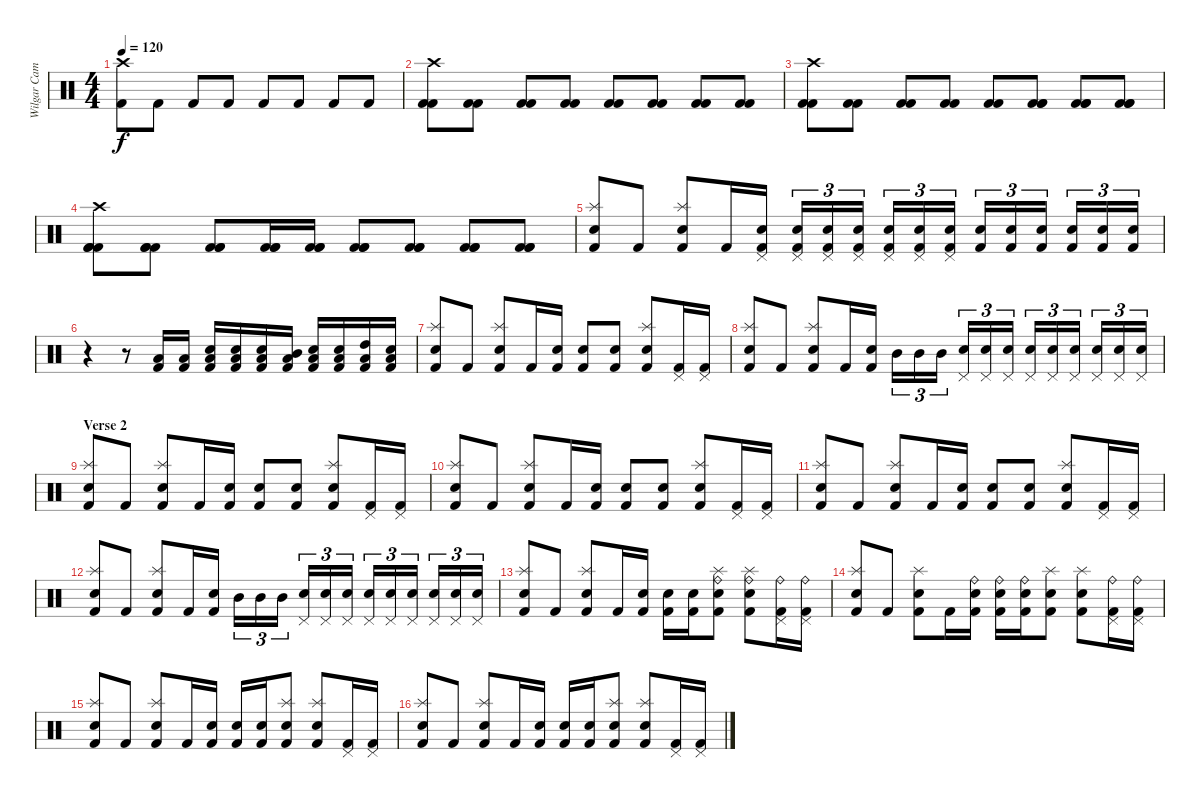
\track ("Wilgar Campbell" "Wilgar Cam") {instrument percussion}
\staff {score}
\articulation defaults
\ts (4 4)
\tempo 120
\clef neutral
\ks c
("Crash high (hit)" "Kick (hit) 2").8{dy f} "Kick (hit) 2".8 "Kick (hit) 2".8 "Kick (hit) 2".8 "Kick (hit) 2".8 "Kick (hit) 2".8 "Kick (hit) 2".8 "Kick (hit) 2".8 |
("Crash high (hit)" "Kick (hit) 2" "Kick (hit) 2").8 ("Kick (hit) 2" "Kick (hit) 2").8 ("Kick (hit) 2" "Kick (hit) 2").8 ("Kick (hit) 2" "Kick (hit) 2").8 ("Kick (hit) 2" "Kick (hit) 2").8 ("Kick (hit) 2" "Kick (hit) 2").8 ("Kick (hit) 2" "Kick (hit) 2").8 ("Kick (hit) 2" "Kick (hit) 2").8 |
("Crash high (hit)" "Kick (hit) 2" "Kick (hit) 2").8 ("Kick (hit) 2" "Kick (hit) 2").8 ("Kick (hit) 2" "Kick (hit) 2").8 ("Kick (hit) 2" "Kick (hit) 2").8 ("Kick (hit) 2" "Kick (hit) 2").8 ("Kick (hit) 2" "Kick (hit) 2" "Kick (hit) 2").8 ("Kick (hit) 2" "Kick (hit) 2" "Kick (hit) 2").8 ("Kick (hit) 2" "Kick (hit) 2" "Kick (hit) 2").8 |
("Crash high (hit)" "Kick (hit) 2" "Kick (hit) 2" "Kick (hit) 2").8 ("Kick (hit) 2" "Kick (hit) 2" "Kick (hit) 2").8 ("Kick (hit) 2" "Kick (hit) 2" "Kick (hit) 2").8 ("Kick (hit) 2" "Kick (hit) 2" "Kick (hit) 2").16 ("Kick (hit) 2" "Kick (hit) 2" "Kick (hit) 2").16 ("Kick (hit) 2" "Kick (hit) 2" "Kick (hit) 2").8 ("Kick (hit) 2" "Kick (hit) 2" "Kick (hit) 2").8 ("Kick (hit) 2" "Kick (hit) 2" "Kick (hit) 2").8 ("Kick (hit) 2" "Kick (hit) 2" "Kick (hit) 2").8 |
("Splash (hit)" "Snare (hit) 2" "Kick (hit) 2").8 "Kick (hit) 2".8 ("Splash (hit)" "Electric Snare (hit)" "Kick (hit) 2").8 "Kick (hit) 2".16 ("Pedal Hi-Hat (hit)" "Snare (hit) 2" "Kick (hit) 2").16 ("Pedal Hi-Hat (hit)" "Snare (hit) 2" "Kick (hit) 2").16{tu (3 2)} ("Pedal Hi-Hat (hit)" "Snare (hit) 2" "Kick (hit) 2").16{tu (3 2)} ("Pedal Hi-Hat (hit)" "Snare (hit) 2" "Kick (hit) 2").16{tu (3 2)} ("Pedal Hi-Hat (hit)" "Snare (hit) 2" "Kick (hit) 2").16{tu (3 2)} ("Pedal Hi-Hat (hit)" "Snare (hit) 2" "Kick (hit) 2").16{tu (3 2)} ("Pedal Hi-Hat (hit)" "Snare (hit) 2" "Kick (hit) 2").16{tu (3 2)} ("Electric Snare (hit)" "Kick (hit) 2").16{tu (3 2)} ("Electric Snare (hit)" "Kick (hit) 2").16{tu (3 2)} ("Electric Snare (hit)" "Kick (hit) 2").16{tu (3 2)} ("Electric Snare (hit)" "Kick (hit) 2").16{tu (3 2)} ("Electric Snare (hit)" "Kick (hit) 2").16{tu (3 2)} ("Electric Snare (hit)" "Kick (hit) 2").16{tu (3 2)} |
r.4 r.8 ("Low Tom (hit)" "Kick (hit) 2").16 ("Low Tom (hit)" "Kick (hit) 2").16 ("Snare (hit) 2" "Low Tom (hit)" "Kick (hit) 2").16 ("Electric Snare (hit)" "Low Tom (hit)" "Kick (hit) 2").16 ("Snare (hit) 2" "Low Tom (hit)" "Kick (hit) 2").16 ("Mid Tom (hit)" "Low Tom (hit)" "Kick (hit) 2").16 ("Electric Snare (hit)" "Low Tom (hit)" "Kick (hit) 2").16 ("Snare (hit) 2" "Low Tom (hit)" "Kick (hit) 2").16 ("High Tom (hit)" "Low Tom (hit)" "Kick (hit) 2").16 ("Electric Snare (hit)" "Low Tom (hit)" "Kick (hit) 2").16 |
("Splash (hit)" "Snare (hit) 2" "Kick (hit) 2").8 "Kick (hit) 2".8 ("Splash (hit)" "Electric Snare (hit)" "Kick (hit) 2").8 "Kick (hit) 2".16 ("Snare (hit) 2" "Kick (hit) 2").16 ("Snare (hit) 2" "Kick (hit) 2").8 ("Electric Snare (hit)" "Kick (hit) 2").8 ("Splash (hit)" "Electric Snare (hit)" "Kick (hit) 2").8 ("Pedal Hi-Hat (hit)" "Kick (hit) 2").16 ("Pedal Hi-Hat (hit)" "Kick (hit) 2").16 |
("Splash (hit)" "Snare (hit) 2" "Kick (hit) 2").8 "Kick (hit) 2".8 ("Splash (hit)" "Electric Snare (hit)" "Kick (hit) 2").8 "Kick (hit) 2".16 ("Snare (hit) 2" "Kick (hit) 2").16 "Mid Tom (hit)".16{tu (3 2)} "Mid Tom (hit)".16{tu (3 2)} "Mid Tom (hit)".16{tu (3 2)} ("Pedal Hi-Hat (hit)" "Snare (hit) 2").16{tu (3 2)} ("Pedal Hi-Hat (hit)" "Snare (hit) 2").16{tu (3 2)} ("Pedal Hi-Hat (hit)" "Snare (hit) 2").16{tu (3 2)} ("Pedal Hi-Hat (hit)" "Snare (hit) 2").16{tu (3 2)} ("Pedal Hi-Hat (hit)" "Snare (hit) 2").16{tu (3 2)} ("Pedal Hi-Hat (hit)" "Snare (hit) 2").16{tu (3 2)} ("Pedal Hi-Hat (hit)" "Snare (hit) 2").16{tu (3 2)} ("Pedal Hi-Hat (hit)" "Snare (hit) 2").16{tu (3 2)} ("Pedal Hi-Hat (hit)" "Snare (hit) 2").16{tu (3 2)} |
\section ("" "Verse 2")
("Splash (hit)" "Snare (hit) 2" "Kick (hit) 2").8 "Kick (hit) 2".8 ("Splash (hit)" "Electric Snare (hit)" "Kick (hit) 2").8 "Kick (hit) 2".16 ("Snare (hit) 2" "Kick (hit) 2").16 ("Snare (hit) 2" "Kick (hit) 2").8 ("Electric Snare (hit)" "Kick (hit) 2").8 ("Splash (hit)" "Electric Snare (hit)" "Kick (hit) 2").8 ("Pedal Hi-Hat (hit)" "Kick (hit) 2").16 ("Pedal Hi-Hat (hit)" "Kick (hit) 2").16 |
("Splash (hit)" "Snare (hit) 2" "Kick (hit) 2").8 "Kick (hit) 2".8 ("Splash (hit)" "Electric Snare (hit)" "Kick (hit) 2").8 "Kick (hit) 2".16 ("Snare (hit) 2" "Kick (hit) 2").16 ("Snare (hit) 2" "Kick (hit) 2").8 ("Electric Snare (hit)" "Kick (hit) 2").8 ("Splash (hit)" "Electric Snare (hit)" "Kick (hit) 2").8 ("Pedal Hi-Hat (hit)" "Kick (hit) 2").16 ("Pedal Hi-Hat (hit)" "Kick (hit) 2").16 |
("Splash (hit)" "Snare (hit) 2" "Kick (hit) 2").8 "Kick (hit) 2".8 ("Splash (hit)" "Electric Snare (hit)" "Kick (hit) 2").8 "Kick (hit) 2".16 ("Snare (hit) 2" "Kick (hit) 2").16 ("Snare (hit) 2" "Kick (hit) 2").8 ("Electric Snare (hit)" "Kick (hit) 2").8 ("Splash (hit)" "Electric Snare (hit)" "Kick (hit) 2").8 ("Pedal Hi-Hat (hit)" "Kick (hit) 2").16 ("Pedal Hi-Hat (hit)" "Kick (hit) 2").16 |
("Splash (hit)" "Snare (hit) 2" "Kick (hit) 2").8 "Kick (hit) 2".8 ("Splash (hit)" "Electric Snare (hit)" "Kick (hit) 2").8 "Kick (hit) 2".16 ("Snare (hit) 2" "Kick (hit) 2").16 "Mid Tom (hit)".16{tu (3 2)} "Mid Tom (hit)".16{tu (3 2)} "Mid Tom (hit)".16{tu (3 2)} ("Pedal Hi-Hat (hit)" "Snare (hit) 2").16{tu (3 2)} ("Pedal Hi-Hat (hit)" "Snare (hit) 2").16{tu (3 2)} ("Pedal Hi-Hat (hit)" "Snare (hit) 2").16{tu (3 2)} ("Pedal Hi-Hat (hit)" "Snare (hit) 2").16{tu (3 2)} ("Pedal Hi-Hat (hit)" "Snare (hit) 2").16{tu (3 2)} ("Pedal Hi-Hat (hit)" "Snare (hit) 2").16{tu (3 2)} ("Pedal Hi-Hat (hit)" "Snare (hit) 2").16{tu (3 2)} ("Pedal Hi-Hat (hit)" "Snare (hit) 2").16{tu (3 2)} ("Pedal Hi-Hat (hit)" "Snare (hit) 2").16{tu (3 2)} |
("Splash (hit)" "Snare (hit) 2" "Kick (hit) 2").8 "Kick (hit) 2".8 ("Splash (hit)" "Electric Snare (hit)" "Kick (hit) 2").8 "Kick (hit) 2".16 ("Snare (hit) 2" "Kick (hit) 2").16 ("Snare (hit) 2" "Kick (hit) 2").16 ("Electric Snare (hit)" "Kick (hit) 2").16 ("Ride (bell)" "Splash (hit)" "Electric Snare (hit)" "Kick (hit) 2").8 ("Ride (bell)" "Splash (hit)" "Snare (hit) 2" "Kick (hit) 2").8 ("Ride (bell)" "Pedal Hi-Hat (hit)" "Kick (hit) 2").16 ("Ride (bell)" "Pedal Hi-Hat (hit)" "Kick (hit) 2").16 |
("Splash (hit)" "Snare (hit) 2" "Kick (hit) 2").8 "Kick (hit) 2".8 ("Splash (hit)" "Electric Snare (hit)" "Kick (hit) 2").8 "Kick (hit) 2".16 ("Ride (bell)" "Snare (hit) 2" "Kick (hit) 2").16 ("Ride (bell)" "Snare (hit) 2" "Kick (hit) 2").16 ("Ride (bell)" "Electric Snare (hit)" "Kick (hit) 2").16 ("Splash (hit)" "Electric Snare (hit)" "Kick (hit) 2").8 ("Splash (hit)" "Snare (hit) 2" "Kick (hit) 2").8 ("Ride (bell)" "Pedal Hi-Hat (hit)" "Kick (hit) 2").16 ("Ride (bell)" "Pedal Hi-Hat (hit)" "Kick (hit) 2").16 |
("Splash (hit)" "Snare (hit) 2" "Kick (hit) 2").8 "Kick (hit) 2".8 ("Splash (hit)" "Electric Snare (hit)" "Kick (hit) 2").8 "Kick (hit) 2".16 ("Snare (hit) 2" "Kick (hit) 2").16 ("Snare (hit) 2" "Kick (hit) 2").16 ("Electric Snare (hit)" "Kick (hit) 2").16 ("Splash (hit)" "Electric Snare (hit)" "Kick (hit) 2").8 ("Splash (hit)" "Snare (hit) 2" "Kick (hit) 2").8 ("Pedal Hi-Hat (hit)" "Kick (hit) 2").16 ("Pedal Hi-Hat (hit)" "Kick (hit) 2").16 |
("Splash (hit)" "Snare (hit) 2" "Kick (hit) 2").8 "Kick (hit) 2".8 ("Splash (hit)" "Electric Snare (hit)" "Kick (hit) 2").8 "Kick (hit) 2".16 ("Snare (hit) 2" "Kick (hit) 2").16 ("Snare (hit) 2" "Kick (hit) 2").16 ("Electric Snare (hit)" "Kick (hit) 2").16 ("Splash (hit)" "Electric Snare (hit)" "Kick (hit) 2").8 ("Splash (hit)" "Snare (hit) 2" "Kick (hit) 2").8 ("Pedal Hi-Hat (hit)" "Kick (hit) 2").16 ("Pedal Hi-Hat (hit)" "Kick (hit) 2").16
